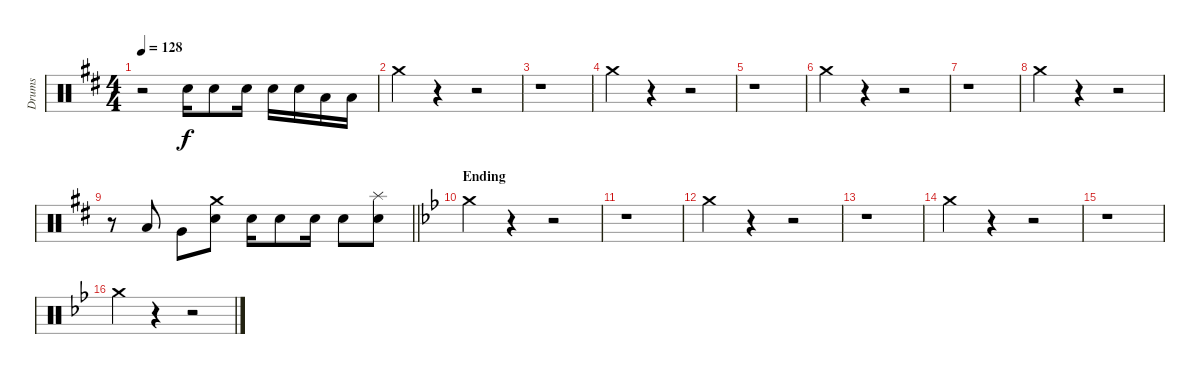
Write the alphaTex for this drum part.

\track ("Drums" "Drums") {instrument percussion}
\staff {score}
\articulation defaults
\ts (4 4)
\tempo 128
\clef neutral
\ks d
r.2{dy f} "Electric Snare (hit)".16 "Electric Snare (hit)".8 "Electric Snare (hit)".16 "Electric Snare (hit)".16 "Electric Snare (hit)".16 "Low Floor Tom (hit)".16 "Low Floor Tom (hit)".16 |
"Crash medium (hit)".4 r.4 r.2 |
r.1 |
"Crash medium (hit)".4 r.4 r.2 |
r.1 |
"Crash medium (hit)".4 r.4 r.2 |
r.1 |
"Crash medium (hit)".4 r.4 r.2 |
\barLineRight lightlight
r.8 "Low Tom (hit)".8 "Very Low Tom (hit)".8 ("Crash medium (hit)" "Electric Snare (hit)").8 "Electric Snare (hit)".16 "Electric Snare (hit)".8 "Electric Snare (hit)".16 "Electric Snare (hit)".8 ("Splash (hit)" "Electric Snare (hit)").8 |
\section ("" "Ending")
\ks gminor "Crash medium (hit)".4
r.4 r.2 |
r.1 |
"Crash medium (hit)".4 r.4 r.2 |
r.1 |
"Crash medium (hit)".4 r.4 r.2 |
r.1 |
"Crash medium (hit)".4 r.4 r.2
